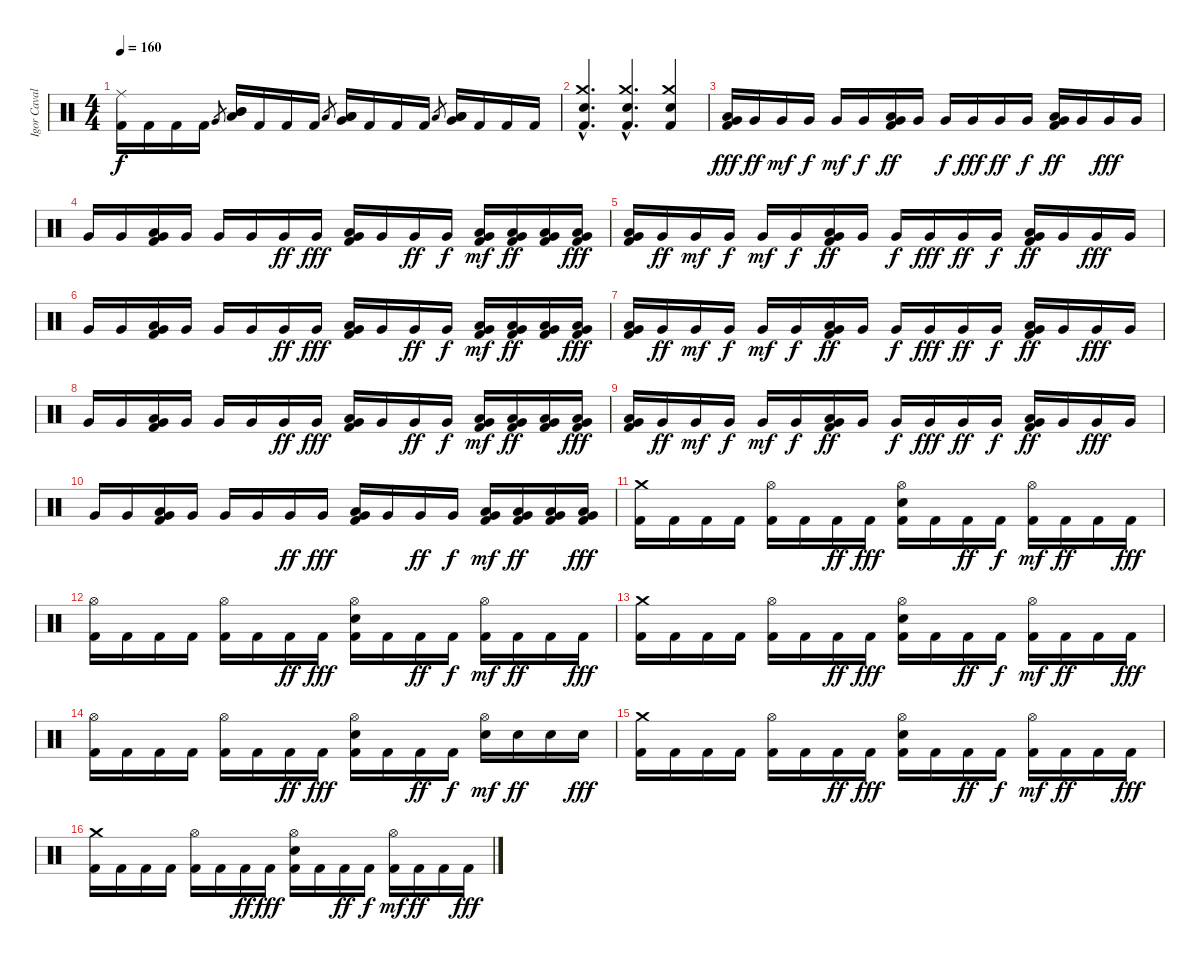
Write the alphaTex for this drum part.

\track ("Igor Cavalera" "Igor Caval") {instrument percussion}
\staff {score}
\articulation defaults
\ts (4 4)
\tempo 160
\clef neutral
\ks c
("Ride (middle)" "Kick (hit) 2").16{dy f} "Kick (hit) 2".16 "Kick (hit) 2".16 "Kick (hit) 2".16 "Very Low Tom (hit)".8{gr} ("Mid Tom (hit)" "Mid Tom (hit)" "Low Tom (hit)").16 "Kick (hit) 2".16 "Kick (hit) 2".16 "Kick (hit) 2".16 "Low Floor Tom (hit)".8{gr} ("Low Tom (hit)" "Low Tom (hit)" "Very Low Tom (hit)").16 "Kick (hit) 2".16 "Kick (hit) 2".16 "Kick (hit) 2".16 "Low Floor Tom (hit)".8{gr} ("Low Tom (hit)" "Very Low Tom (hit)" "Low Floor Tom (hit)").16 "Kick (hit) 2".16 "Kick (hit) 2".16 "Kick (hit) 2".16 |
("Crash medium (hit)"{hac} "Kick (hit) 2"{hac} "Electric Snare (hit)"{hac}).4{d} ("Crash medium (hit)"{hac} "Kick (hit) 2"{hac} "Electric Snare (hit)"{hac}).4{d} ("Crash medium (hit)" "Kick (hit) 2" "Electric Snare (hit)").4 |
("Low Floor Tom (hit)" "Very Low Tom (hit)" "Kick (hit) 2").16{dy fff} "Very Low Tom (hit)".16{dy ff} "Very Low Tom (hit)".16{dy mf} "Very Low Tom (hit)".16{dy f} "Very Low Tom (hit)".16{dy mf} "Very Low Tom (hit)".16{dy f} ("Low Floor Tom (hit)" "Very Low Tom (hit)" "Kick (hit) 2").16{dy ff} "Very Low Tom (hit)".16 "Very Low Tom (hit)".16{dy f} "Very Low Tom (hit)".16{dy fff} "Very Low Tom (hit)".16{dy ff} "Very Low Tom (hit)".16{dy f} ("Low Floor Tom (hit)" "Very Low Tom (hit)" "Kick (hit) 2").16{dy ff} "Very Low Tom (hit)".16 "Very Low Tom (hit)".16{dy fff} "Very Low Tom (hit)".16 |
"Very Low Tom (hit)".16 "Very Low Tom (hit)".16 ("Low Floor Tom (hit)" "Very Low Tom (hit)" "Kick (hit) 2").16 "Very Low Tom (hit)".16 "Very Low Tom (hit)".16 "Very Low Tom (hit)".16 "Very Low Tom (hit)".16{dy ff} "Very Low Tom (hit)".16{dy fff} ("Kick (hit) 2" "Very Low Tom (hit)" "Low Floor Tom (hit)").16 "Very Low Tom (hit)".16 "Very Low Tom (hit)".16{dy ff} "Very Low Tom (hit)".16{dy f} ("Kick (hit) 2" "Very Low Tom (hit)" "Low Floor Tom (hit)").16{dy mf} ("Low Floor Tom (hit)" "Very Low Tom (hit)" "Kick (hit) 2").16{dy ff} ("Low Floor Tom (hit)" "Very Low Tom (hit)" "Kick (hit) 2").16 ("Low Floor Tom (hit)" "Very Low Tom (hit)" "Kick (hit) 2").16{dy fff} |
("Low Floor Tom (hit)" "Very Low Tom (hit)" "Kick (hit) 2").16 "Very Low Tom (hit)".16{dy ff} "Very Low Tom (hit)".16{dy mf} "Very Low Tom (hit)".16{dy f} "Very Low Tom (hit)".16{dy mf} "Very Low Tom (hit)".16{dy f} ("Low Floor Tom (hit)" "Very Low Tom (hit)" "Kick (hit) 2").16{dy ff} "Very Low Tom (hit)".16 "Very Low Tom (hit)".16{dy f} "Very Low Tom (hit)".16{dy fff} "Very Low Tom (hit)".16{dy ff} "Very Low Tom (hit)".16{dy f} ("Low Floor Tom (hit)" "Very Low Tom (hit)" "Kick (hit) 2").16{dy ff} "Very Low Tom (hit)".16 "Very Low Tom (hit)".16{dy fff} "Very Low Tom (hit)".16 |
"Very Low Tom (hit)".16 "Very Low Tom (hit)".16 ("Low Floor Tom (hit)" "Very Low Tom (hit)" "Kick (hit) 2").16 "Very Low Tom (hit)".16 "Very Low Tom (hit)".16 "Very Low Tom (hit)".16 "Very Low Tom (hit)".16{dy ff} "Very Low Tom (hit)".16{dy fff} ("Kick (hit) 2" "Very Low Tom (hit)" "Low Floor Tom (hit)").16 "Very Low Tom (hit)".16 "Very Low Tom (hit)".16{dy ff} "Very Low Tom (hit)".16{dy f} ("Kick (hit) 2" "Very Low Tom (hit)" "Low Floor Tom (hit)").16{dy mf} ("Low Floor Tom (hit)" "Very Low Tom (hit)" "Kick (hit) 2").16{dy ff} ("Low Floor Tom (hit)" "Very Low Tom (hit)" "Kick (hit) 2").16 ("Low Floor Tom (hit)" "Very Low Tom (hit)" "Kick (hit) 2").16{dy fff} |
("Low Floor Tom (hit)" "Very Low Tom (hit)" "Kick (hit) 2").16 "Very Low Tom (hit)".16{dy ff} "Very Low Tom (hit)".16{dy mf} "Very Low Tom (hit)".16{dy f} "Very Low Tom (hit)".16{dy mf} "Very Low Tom (hit)".16{dy f} ("Low Floor Tom (hit)" "Very Low Tom (hit)" "Kick (hit) 2").16{dy ff} "Very Low Tom (hit)".16 "Very Low Tom (hit)".16{dy f} "Very Low Tom (hit)".16{dy fff} "Very Low Tom (hit)".16{dy ff} "Very Low Tom (hit)".16{dy f} ("Low Floor Tom (hit)" "Very Low Tom (hit)" "Kick (hit) 2").16{dy ff} "Very Low Tom (hit)".16 "Very Low Tom (hit)".16{dy fff} "Very Low Tom (hit)".16 |
"Very Low Tom (hit)".16 "Very Low Tom (hit)".16 ("Low Floor Tom (hit)" "Very Low Tom (hit)" "Kick (hit) 2").16 "Very Low Tom (hit)".16 "Very Low Tom (hit)".16 "Very Low Tom (hit)".16 "Very Low Tom (hit)".16{dy ff} "Very Low Tom (hit)".16{dy fff} ("Kick (hit) 2" "Very Low Tom (hit)" "Low Floor Tom (hit)").16 "Very Low Tom (hit)".16 "Very Low Tom (hit)".16{dy ff} "Very Low Tom (hit)".16{dy f} ("Kick (hit) 2" "Very Low Tom (hit)" "Low Floor Tom (hit)").16{dy mf} ("Low Floor Tom (hit)" "Very Low Tom (hit)" "Kick (hit) 2").16{dy ff} ("Low Floor Tom (hit)" "Very Low Tom (hit)" "Kick (hit) 2").16 ("Low Floor Tom (hit)" "Very Low Tom (hit)" "Kick (hit) 2").16{dy fff} |
("Low Floor Tom (hit)" "Very Low Tom (hit)" "Kick (hit) 2").16 "Very Low Tom (hit)".16{dy ff} "Very Low Tom (hit)".16{dy mf} "Very Low Tom (hit)".16{dy f} "Very Low Tom (hit)".16{dy mf} "Very Low Tom (hit)".16{dy f} ("Low Floor Tom (hit)" "Very Low Tom (hit)" "Kick (hit) 2").16{dy ff} "Very Low Tom (hit)".16 "Very Low Tom (hit)".16{dy f} "Very Low Tom (hit)".16{dy fff} "Very Low Tom (hit)".16{dy ff} "Very Low Tom (hit)".16{dy f} ("Low Floor Tom (hit)" "Very Low Tom (hit)" "Kick (hit) 2").16{dy ff} "Very Low Tom (hit)".16 "Very Low Tom (hit)".16{dy fff} "Very Low Tom (hit)".16 |
"Very Low Tom (hit)".16 "Very Low Tom (hit)".16 ("Low Floor Tom (hit)" "Very Low Tom (hit)" "Kick (hit) 2").16 "Very Low Tom (hit)".16 "Very Low Tom (hit)".16 "Very Low Tom (hit)".16 "Very Low Tom (hit)".16{dy ff} "Very Low Tom (hit)".16{dy fff} ("Kick (hit) 2" "Very Low Tom (hit)" "Low Floor Tom (hit)").16 "Very Low Tom (hit)".16 "Very Low Tom (hit)".16{dy ff} "Very Low Tom (hit)".16{dy f} ("Kick (hit) 2" "Very Low Tom (hit)" "Low Floor Tom (hit)").16{dy mf} ("Low Floor Tom (hit)" "Very Low Tom (hit)" "Kick (hit) 2").16{dy ff} ("Low Floor Tom (hit)" "Very Low Tom (hit)" "Kick (hit) 2").16 ("Low Floor Tom (hit)" "Very Low Tom (hit)" "Kick (hit) 2").16{dy fff} |
("Kick (hit) 2" "Crash medium (hit)").16 "Kick (hit) 2".16 "Kick (hit) 2".16 "Kick (hit) 2".16 ("Kick (hit) 2" "Hi-Hat (open)").16 "Kick (hit) 2".16 "Kick (hit) 2".16{dy ff} "Kick (hit) 2".16{dy fff} ("Kick (hit) 2" "Electric Snare (hit)" "Hi-Hat (open)").16 "Kick (hit) 2".16 "Kick (hit) 2".16{dy ff} "Kick (hit) 2".16{dy f} ("Kick (hit) 2" "Hi-Hat (open)").16{dy mf} "Kick (hit) 2".16{dy ff} "Kick (hit) 2".16 "Kick (hit) 2".16{dy fff} |
("Kick (hit) 2" "Hi-Hat (open)").16 "Kick (hit) 2".16 "Kick (hit) 2".16 "Kick (hit) 2".16 ("Kick (hit) 2" "Hi-Hat (open)").16 "Kick (hit) 2".16 "Kick (hit) 2".16{dy ff} "Kick (hit) 2".16{dy fff} ("Kick (hit) 2" "Electric Snare (hit)" "Hi-Hat (open)").16 "Kick (hit) 2".16 "Kick (hit) 2".16{dy ff} "Kick (hit) 2".16{dy f} ("Kick (hit) 2" "Hi-Hat (open)").16{dy mf} "Kick (hit) 2".16{dy ff} "Kick (hit) 2".16 "Kick (hit) 2".16{dy fff} |
("Kick (hit) 2" "Crash medium (hit)").16 "Kick (hit) 2".16 "Kick (hit) 2".16 "Kick (hit) 2".16 ("Kick (hit) 2" "Hi-Hat (open)").16 "Kick (hit) 2".16 "Kick (hit) 2".16{dy ff} "Kick (hit) 2".16{dy fff} ("Kick (hit) 2" "Electric Snare (hit)" "Hi-Hat (open)").16 "Kick (hit) 2".16 "Kick (hit) 2".16{dy ff} "Kick (hit) 2".16{dy f} ("Kick (hit) 2" "Hi-Hat (open)").16{dy mf} "Kick (hit) 2".16{dy ff} "Kick (hit) 2".16 "Kick (hit) 2".16{dy fff} |
("Kick (hit) 2" "Hi-Hat (open)").16 "Kick (hit) 2".16 "Kick (hit) 2".16 "Kick (hit) 2".16 ("Kick (hit) 2" "Hi-Hat (open)").16 "Kick (hit) 2".16 "Kick (hit) 2".16{dy ff} "Kick (hit) 2".16{dy fff} ("Kick (hit) 2" "Electric Snare (hit)" "Hi-Hat (open)").16 "Kick (hit) 2".16 "Kick (hit) 2".16{dy ff} "Kick (hit) 2".16{dy f} ("Electric Snare (hit)" "Hi-Hat (open)").16{dy mf} "Electric Snare (hit)".16{dy ff} "Electric Snare (hit)".16 "Electric Snare (hit)".16{dy fff} |
("Kick (hit) 2" "Crash medium (hit)").16 "Kick (hit) 2".16 "Kick (hit) 2".16 "Kick (hit) 2".16 ("Kick (hit) 2" "Hi-Hat (open)").16 "Kick (hit) 2".16 "Kick (hit) 2".16{dy ff} "Kick (hit) 2".16{dy fff} ("Kick (hit) 2" "Electric Snare (hit)" "Hi-Hat (open)").16 "Kick (hit) 2".16 "Kick (hit) 2".16{dy ff} "Kick (hit) 2".16{dy f} ("Kick (hit) 2" "Hi-Hat (open)").16{dy mf} "Kick (hit) 2".16{dy ff} "Kick (hit) 2".16 "Kick (hit) 2".16{dy fff} |
("Kick (hit) 2" "Crash medium (hit)").16 "Kick (hit) 2".16 "Kick (hit) 2".16 "Kick (hit) 2".16 ("Kick (hit) 2" "Hi-Hat (open)").16 "Kick (hit) 2".16 "Kick (hit) 2".16{dy ff} "Kick (hit) 2".16{dy fff} ("Kick (hit) 2" "Electric Snare (hit)" "Hi-Hat (open)").16 "Kick (hit) 2".16 "Kick (hit) 2".16{dy ff} "Kick (hit) 2".16{dy f} ("Kick (hit) 2" "Hi-Hat (open)").16{dy mf} "Kick (hit) 2".16{dy ff} "Kick (hit) 2".16 "Kick (hit) 2".16{dy fff}
